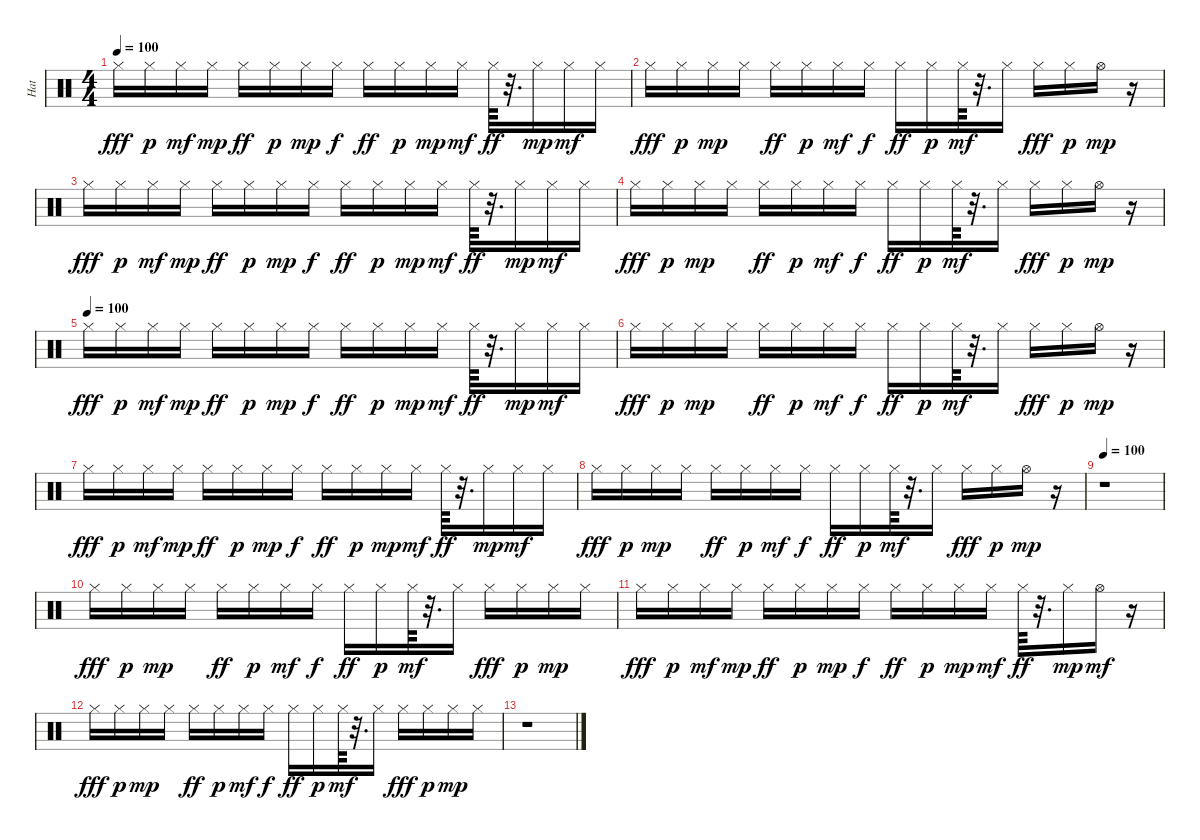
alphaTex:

\track ("Hat" "Hat") {instrument percussion}
\staff {score}
\articulation defaults
\ts (4 4)
\tempo 100
\clef neutral
\ks c "Hi-Hat (closed)".16{dy fff} "Hi-Hat (closed)".16{dy p} "Hi-Hat (closed)".16{dy mf} "Hi-Hat (closed)".16{dy mp} "Hi-Hat (closed)".16{dy ff} "Hi-Hat (closed)".16{dy p} "Hi-Hat (closed)".16{dy mp} "Hi-Hat (closed)".16{dy f} "Hi-Hat (closed)".16{dy ff} "Hi-Hat (closed)".16{dy p} "Hi-Hat (closed)".16{dy mp} "Hi-Hat (closed)".16{dy mf} "Hi-Hat (closed)".64{dy ff}
r.32{d} "Hi-Hat (closed)".16{dy mp} "Hi-Hat (closed)".16{dy mf} "Hi-Hat (closed)".16 |
"Hi-Hat (closed)".16{dy fff} "Hi-Hat (closed)".16{dy p} "Hi-Hat (closed)".16{dy mp} "Hi-Hat (closed)".16 "Hi-Hat (closed)".16{dy ff} "Hi-Hat (closed)".16{dy p} "Hi-Hat (closed)".16{dy mf} "Hi-Hat (closed)".16{dy f} "Hi-Hat (closed)".16{dy ff} "Hi-Hat (closed)".16{dy p} "Hi-Hat (closed)".64{dy mf} r.32{d} "Hi-Hat (closed)".16 "Hi-Hat (closed)".16{dy fff} "Hi-Hat (closed)".16{dy p} "Hi-Hat (open)".16{dy mp} r.16 |
"Hi-Hat (closed)".16{dy fff} "Hi-Hat (closed)".16{dy p} "Hi-Hat (closed)".16{dy mf} "Hi-Hat (closed)".16{dy mp} "Hi-Hat (closed)".16{dy ff} "Hi-Hat (closed)".16{dy p} "Hi-Hat (closed)".16{dy mp} "Hi-Hat (closed)".16{dy f} "Hi-Hat (closed)".16{dy ff} "Hi-Hat (closed)".16{dy p} "Hi-Hat (closed)".16{dy mp} "Hi-Hat (closed)".16{dy mf} "Hi-Hat (closed)".64{dy ff} r.32{d} "Hi-Hat (closed)".16{dy mp} "Hi-Hat (closed)".16{dy mf} "Hi-Hat (closed)".16 |
"Hi-Hat (closed)".16{dy fff} "Hi-Hat (closed)".16{dy p} "Hi-Hat (closed)".16{dy mp} "Hi-Hat (closed)".16 "Hi-Hat (closed)".16{dy ff} "Hi-Hat (closed)".16{dy p} "Hi-Hat (closed)".16{dy mf} "Hi-Hat (closed)".16{dy f} "Hi-Hat (closed)".16{dy ff} "Hi-Hat (closed)".16{dy p} "Hi-Hat (closed)".64{dy mf} r.32{d} "Hi-Hat (closed)".16 "Hi-Hat (closed)".16{dy fff} "Hi-Hat (closed)".16{dy p} "Hi-Hat (open)".16{dy mp} r.16 |
\tempo (100)
"Hi-Hat (closed)".16{dy fff} "Hi-Hat (closed)".16{dy p} "Hi-Hat (closed)".16{dy mf} "Hi-Hat (closed)".16{dy mp} "Hi-Hat (closed)".16{dy ff} "Hi-Hat (closed)".16{dy p} "Hi-Hat (closed)".16{dy mp} "Hi-Hat (closed)".16{dy f} "Hi-Hat (closed)".16{dy ff} "Hi-Hat (closed)".16{dy p} "Hi-Hat (closed)".16{dy mp} "Hi-Hat (closed)".16{dy mf} "Hi-Hat (closed)".64{dy ff} r.32{d} "Hi-Hat (closed)".16{dy mp} "Hi-Hat (closed)".16{dy mf} "Hi-Hat (closed)".16 |
"Hi-Hat (closed)".16{dy fff} "Hi-Hat (closed)".16{dy p} "Hi-Hat (closed)".16{dy mp} "Hi-Hat (closed)".16 "Hi-Hat (closed)".16{dy ff} "Hi-Hat (closed)".16{dy p} "Hi-Hat (closed)".16{dy mf} "Hi-Hat (closed)".16{dy f} "Hi-Hat (closed)".16{dy ff} "Hi-Hat (closed)".16{dy p} "Hi-Hat (closed)".64{dy mf} r.32{d} "Hi-Hat (closed)".16 "Hi-Hat (closed)".16{dy fff} "Hi-Hat (closed)".16{dy p} "Hi-Hat (open)".16{dy mp} r.16 |
"Hi-Hat (closed)".16{dy fff} "Hi-Hat (closed)".16{dy p} "Hi-Hat (closed)".16{dy mf} "Hi-Hat (closed)".16{dy mp} "Hi-Hat (closed)".16{dy ff} "Hi-Hat (closed)".16{dy p} "Hi-Hat (closed)".16{dy mp} "Hi-Hat (closed)".16{dy f} "Hi-Hat (closed)".16{dy ff} "Hi-Hat (closed)".16{dy p} "Hi-Hat (closed)".16{dy mp} "Hi-Hat (closed)".16{dy mf} "Hi-Hat (closed)".64{dy ff} r.32{d} "Hi-Hat (closed)".16{dy mp} "Hi-Hat (closed)".16{dy mf} "Hi-Hat (closed)".16 |
"Hi-Hat (closed)".16{dy fff} "Hi-Hat (closed)".16{dy p} "Hi-Hat (closed)".16{dy mp} "Hi-Hat (closed)".16 "Hi-Hat (closed)".16{dy ff} "Hi-Hat (closed)".16{dy p} "Hi-Hat (closed)".16{dy mf} "Hi-Hat (closed)".16{dy f} "Hi-Hat (closed)".16{dy ff} "Hi-Hat (closed)".16{dy p} "Hi-Hat (closed)".64{dy mf} r.32{d} "Hi-Hat (closed)".16 "Hi-Hat (closed)".16{dy fff} "Hi-Hat (closed)".16{dy p} "Hi-Hat (open)".16{dy mp} r.16 |
\tempo 100
r.1 |
"Hi-Hat (closed)".16{dy fff volume 12} "Hi-Hat (closed)".16{dy p volume 12} "Hi-Hat (closed)".16{dy mp volume 11} "Hi-Hat (closed)".16{volume 11} "Hi-Hat (closed)".16{dy ff volume 11} "Hi-Hat (closed)".16{dy p volume 11} "Hi-Hat (closed)".16{dy mf volume 11} "Hi-Hat (closed)".16{dy f volume 11} "Hi-Hat (closed)".16{dy ff volume 10} "Hi-Hat (closed)".16{dy p volume 10} "Hi-Hat (closed)".64{dy mf volume 10} r.32{d} "Hi-Hat (closed)".16{volume 10} "Hi-Hat (closed)".16{dy fff volume 10} "Hi-Hat (closed)".16{dy p volume 10} "Hi-Hat (closed)".16{dy mp volume 10} "Hi-Hat (closed)".16{volume 9} |
"Hi-Hat (closed)".16{dy fff volume 9} "Hi-Hat (closed)".16{dy p volume 9} "Hi-Hat (closed)".16{dy mf volume 9} "Hi-Hat (closed)".16{dy mp volume 9} "Hi-Hat (closed)".16{dy ff volume 9} "Hi-Hat (closed)".16{dy p volume 8} "Hi-Hat (closed)".16{dy mp volume 8} "Hi-Hat (closed)".16{dy f volume 8} "Hi-Hat (closed)".16{dy ff volume 8} "Hi-Hat (closed)".16{dy p volume 8} "Hi-Hat (closed)".16{dy mp volume 8} "Hi-Hat (closed)".16{dy mf volume 8} "Hi-Hat (closed)".64{dy ff volume 8} r.32{d} "Hi-Hat (closed)".16{dy mp volume 7} "Hi-Hat (open)".16{dy mf volume 7} r.16 |
"Hi-Hat (closed)".16{dy fff volume 7} "Hi-Hat (closed)".16{dy p volume 7} "Hi-Hat (closed)".16{dy mp volume 6} "Hi-Hat (closed)".16{volume 6} "Hi-Hat (closed)".16{dy ff volume 6} "Hi-Hat (closed)".16{dy p volume 6} "Hi-Hat (closed)".16{dy mf volume 6} "Hi-Hat (closed)".16{dy f volume 6} "Hi-Hat (closed)".16{dy ff volume 6} "Hi-Hat (closed)".16{dy p volume 6} "Hi-Hat (closed)".64{dy mf volume 5} r.32{d} "Hi-Hat (closed)".16{volume 5} "Hi-Hat (closed)".16{dy fff volume 5} "Hi-Hat (closed)".16{dy p volume 5} "Hi-Hat (closed)".16{dy mp volume 5} "Hi-Hat (closed)".16{volume 5} |
r.1
